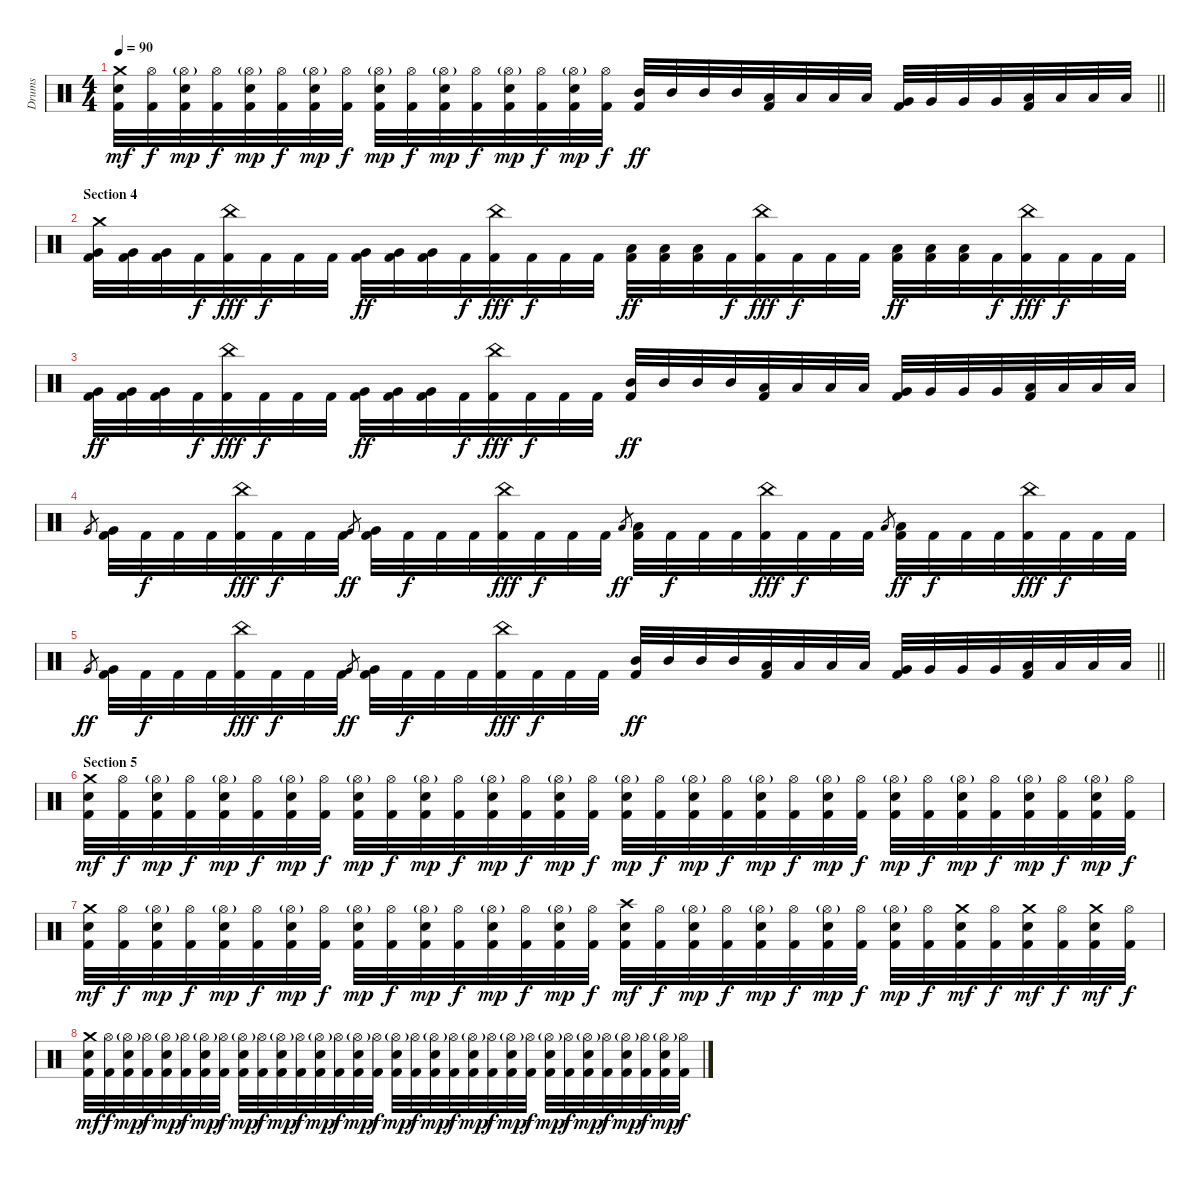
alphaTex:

\track ("Drums" "Drums") {instrument percussion}
\staff {score}
\articulation defaults
\ts (4 4)
\tempo 90
\clef neutral
\barLineRight lightlight
\ks c
("Crash medium (hit)" "Snare (hit) 2" "Kick (hit) 2").32{dy mf} ("Hi-Hat (open)" "Kick (hit) 2").32{dy f} ("Snare (hit) 2" "Hi-Hat (open)"{g} "Kick (hit) 2").32{dy mp} ("Hi-Hat (open)" "Kick (hit) 2").32{dy f} ("Snare (hit) 2" "Hi-Hat (open)"{g} "Kick (hit) 2").32{dy mp} ("Hi-Hat (open)" "Kick (hit) 2").32{dy f} ("Snare (hit) 2" "Hi-Hat (open)"{g} "Kick (hit) 2").32{dy mp} ("Hi-Hat (open)" "Kick (hit) 2").32{dy f} ("Snare (hit) 2" "Hi-Hat (open)"{g} "Kick (hit) 2").32{dy mp} ("Hi-Hat (open)" "Kick (hit) 2").32{dy f} ("Snare (hit) 2" "Hi-Hat (open)"{g} "Kick (hit) 2").32{dy mp} ("Hi-Hat (open)" "Kick (hit) 2").32{dy f} ("Snare (hit) 2" "Hi-Hat (open)"{g} "Kick (hit) 2").32{dy mp} ("Hi-Hat (open)" "Kick (hit) 2").32{dy f} ("Snare (hit) 2" "Hi-Hat (open)"{g} "Kick (hit) 2").32{dy mp} ("Hi-Hat (open)" "Kick (hit) 2").32{dy f} ("Mid Tom (hit)" "Kick (hit) 2").32{dy ff} "Mid Tom (hit)".32 "Mid Tom (hit)".32 "Mid Tom (hit)".32 ("Low Tom (hit)" "Kick (hit) 2").32 "Low Tom (hit)".32 "Low Tom (hit)".32 "Low Tom (hit)".32 ("Very Low Tom (hit)" "Kick (hit) 2").32 "Very Low Tom (hit)".32 "Very Low Tom (hit)".32 "Very Low Tom (hit)".32 ("Low Floor Tom (hit)" "Kick (hit) 2").32 "Low Floor Tom (hit)".32 "Low Floor Tom (hit)".32 "Low Floor Tom (hit)".32 |
\section ("" "Section 4")
("Crash medium (hit)" "Very Low Tom (hit)" "Kick (hit) 2").32 ("Very Low Tom (hit)" "Kick (hit) 2").32 ("Very Low Tom (hit)" "Kick (hit) 2").32 "Kick (hit) 2".32{dy f} ("China (hit)" "Kick (hit) 2").32{dy fff} "Kick (hit) 2".32{dy f} "Kick (hit) 2".32 "Kick (hit) 2".32 ("Very Low Tom (hit)" "Kick (hit) 2").32{dy ff} ("Very Low Tom (hit)" "Kick (hit) 2").32 ("Very Low Tom (hit)" "Kick (hit) 2").32 "Kick (hit) 2".32{dy f} ("China (hit)" "Kick (hit) 2").32{dy fff} "Kick (hit) 2".32{dy f} "Kick (hit) 2".32 "Kick (hit) 2".32 ("Low Tom (hit)" "Kick (hit) 2").32{dy ff} ("Low Tom (hit)" "Kick (hit) 2").32 ("Low Tom (hit)" "Kick (hit) 2").32 "Kick (hit) 2".32{dy f} ("China (hit)" "Kick (hit) 2").32{dy fff} "Kick (hit) 2".32{dy f} "Kick (hit) 2".32 "Kick (hit) 2".32 ("Low Tom (hit)" "Kick (hit) 2").32{dy ff} ("Low Tom (hit)" "Kick (hit) 2").32 ("Low Tom (hit)" "Kick (hit) 2").32 "Kick (hit) 2".32{dy f} ("China (hit)" "Kick (hit) 2").32{dy fff} "Kick (hit) 2".32{dy f} "Kick (hit) 2".32 "Kick (hit) 2".32 |
("Very Low Tom (hit)" "Kick (hit) 2").32{dy ff} ("Very Low Tom (hit)" "Kick (hit) 2").32 ("Very Low Tom (hit)" "Kick (hit) 2").32 "Kick (hit) 2".32{dy f} ("China (hit)" "Kick (hit) 2").32{dy fff} "Kick (hit) 2".32{dy f} "Kick (hit) 2".32 "Kick (hit) 2".32 ("Very Low Tom (hit)" "Kick (hit) 2").32{dy ff} ("Very Low Tom (hit)" "Kick (hit) 2").32 ("Very Low Tom (hit)" "Kick (hit) 2").32 "Kick (hit) 2".32{dy f} ("China (hit)" "Kick (hit) 2").32{dy fff} "Kick (hit) 2".32{dy f} "Kick (hit) 2".32 "Kick (hit) 2".32 ("Mid Tom (hit)" "Kick (hit) 2").32{dy ff} "Mid Tom (hit)".32 "Mid Tom (hit)".32 "Mid Tom (hit)".32 ("Low Tom (hit)" "Kick (hit) 2").32 "Low Tom (hit)".32 "Low Tom (hit)".32 "Low Tom (hit)".32 ("Very Low Tom (hit)" "Kick (hit) 2").32 "Very Low Tom (hit)".32 "Very Low Tom (hit)".32 "Very Low Tom (hit)".32 ("Low Floor Tom (hit)" "Kick (hit) 2").32 "Low Floor Tom (hit)".32 "Low Floor Tom (hit)".32 "Low Floor Tom (hit)".32 |
"Very Low Tom (hit)".8{gr} ("Very Low Tom (hit)" "Kick (hit) 2").32 "Kick (hit) 2".32{dy f} "Kick (hit) 2".32 "Kick (hit) 2".32 ("China (hit)" "Kick (hit) 2").32{dy fff} "Kick (hit) 2".32{dy f} "Kick (hit) 2".32 "Kick (hit) 2".32 "Very Low Tom (hit)".8{gr dy ff} ("Very Low Tom (hit)" "Kick (hit) 2").32 "Kick (hit) 2".32{dy f} "Kick (hit) 2".32 "Kick (hit) 2".32 ("China (hit)" "Kick (hit) 2").32{dy fff} "Kick (hit) 2".32{dy f} "Kick (hit) 2".32 "Kick (hit) 2".32 "Low Tom (hit)".8{gr dy ff} ("Low Tom (hit)" "Kick (hit) 2").32 "Kick (hit) 2".32{dy f} "Kick (hit) 2".32 "Kick (hit) 2".32 ("China (hit)" "Kick (hit) 2").32{dy fff} "Kick (hit) 2".32{dy f} "Kick (hit) 2".32 "Kick (hit) 2".32 "Low Tom (hit)".8{gr} ("Low Tom (hit)" "Kick (hit) 2").32{dy ff} "Kick (hit) 2".32{dy f} "Kick (hit) 2".32 "Kick (hit) 2".32 ("China (hit)" "Kick (hit) 2").32{dy fff} "Kick (hit) 2".32{dy f} "Kick (hit) 2".32 "Kick (hit) 2".32 |
\barLineRight lightlight "Very Low Tom (hit)".8{gr dy ff}
("Very Low Tom (hit)" "Kick (hit) 2").32 "Kick (hit) 2".32{dy f} "Kick (hit) 2".32 "Kick (hit) 2".32 ("China (hit)" "Kick (hit) 2").32{dy fff} "Kick (hit) 2".32{dy f} "Kick (hit) 2".32 "Kick (hit) 2".32 "Very Low Tom (hit)".8{gr dy ff} ("Very Low Tom (hit)" "Kick (hit) 2").32 "Kick (hit) 2".32{dy f} "Kick (hit) 2".32 "Kick (hit) 2".32 ("China (hit)" "Kick (hit) 2").32{dy fff} "Kick (hit) 2".32{dy f} "Kick (hit) 2".32 "Kick (hit) 2".32 ("Mid Tom (hit)" "Kick (hit) 2").32{dy ff} "Mid Tom (hit)".32 "Mid Tom (hit)".32 "Mid Tom (hit)".32 ("Low Tom (hit)" "Kick (hit) 2").32 "Low Tom (hit)".32 "Low Tom (hit)".32 "Low Tom (hit)".32 ("Very Low Tom (hit)" "Kick (hit) 2").32 "Very Low Tom (hit)".32 "Very Low Tom (hit)".32 "Very Low Tom (hit)".32 ("Low Floor Tom (hit)" "Kick (hit) 2").32 "Low Floor Tom (hit)".32 "Low Floor Tom (hit)".32 "Low Floor Tom (hit)".32 |
\section ("" "Section 5")
("Crash medium (hit)" "Snare (hit) 2" "Kick (hit) 2").32{dy mf} ("Hi-Hat (open)" "Kick (hit) 2").32{dy f} ("Snare (hit) 2" "Hi-Hat (open)"{g} "Kick (hit) 2").32{dy mp} ("Hi-Hat (open)" "Kick (hit) 2").32{dy f} ("Snare (hit) 2" "Hi-Hat (open)"{g} "Kick (hit) 2").32{dy mp} ("Hi-Hat (open)" "Kick (hit) 2").32{dy f} ("Snare (hit) 2" "Hi-Hat (open)"{g} "Kick (hit) 2").32{dy mp} ("Hi-Hat (open)" "Kick (hit) 2").32{dy f} ("Snare (hit) 2" "Hi-Hat (open)"{g} "Kick (hit) 2").32{dy mp} ("Hi-Hat (open)" "Kick (hit) 2").32{dy f} ("Snare (hit) 2" "Hi-Hat (open)"{g} "Kick (hit) 2").32{dy mp} ("Hi-Hat (open)" "Kick (hit) 2").32{dy f} ("Snare (hit) 2" "Hi-Hat (open)"{g} "Kick (hit) 2").32{dy mp} ("Hi-Hat (open)" "Kick (hit) 2").32{dy f} ("Snare (hit) 2" "Hi-Hat (open)"{g} "Kick (hit) 2").32{dy mp} ("Hi-Hat (open)" "Kick (hit) 2").32{dy f} ("Snare (hit) 2" "Hi-Hat (open)"{g} "Kick (hit) 2").32{dy mp} ("Hi-Hat (open)" "Kick (hit) 2").32{dy f} ("Snare (hit) 2" "Hi-Hat (open)"{g} "Kick (hit) 2").32{dy mp} ("Hi-Hat (open)" "Kick (hit) 2").32{dy f} ("Snare (hit) 2" "Hi-Hat (open)"{g} "Kick (hit) 2").32{dy mp} ("Hi-Hat (open)" "Kick (hit) 2").32{dy f} ("Snare (hit) 2" "Hi-Hat (open)"{g} "Kick (hit) 2").32{dy mp} ("Hi-Hat (open)" "Kick (hit) 2").32{dy f} ("Snare (hit) 2" "Hi-Hat (open)"{g} "Kick (hit) 2").32{dy mp} ("Hi-Hat (open)" "Kick (hit) 2").32{dy f} ("Snare (hit) 2" "Hi-Hat (open)"{g} "Kick (hit) 2").32{dy mp} ("Hi-Hat (open)" "Kick (hit) 2").32{dy f} ("Snare (hit) 2" "Hi-Hat (open)"{g} "Kick (hit) 2").32{dy mp} ("Hi-Hat (open)" "Kick (hit) 2").32{dy f} ("Snare (hit) 2" "Hi-Hat (open)"{g} "Kick (hit) 2").32{dy mp} ("Hi-Hat (open)" "Kick (hit) 2").32{dy f} |
("Crash medium (hit)" "Snare (hit) 2" "Kick (hit) 2").32{dy mf} ("Hi-Hat (open)" "Kick (hit) 2").32{dy f} ("Snare (hit) 2" "Hi-Hat (open)"{g} "Kick (hit) 2").32{dy mp} ("Hi-Hat (open)" "Kick (hit) 2").32{dy f} ("Snare (hit) 2" "Hi-Hat (open)"{g} "Kick (hit) 2").32{dy mp} ("Hi-Hat (open)" "Kick (hit) 2").32{dy f} ("Snare (hit) 2" "Hi-Hat (open)"{g} "Kick (hit) 2").32{dy mp} ("Hi-Hat (open)" "Kick (hit) 2").32{dy f} ("Snare (hit) 2" "Hi-Hat (open)"{g} "Kick (hit) 2").32{dy mp} ("Hi-Hat (open)" "Kick (hit) 2").32{dy f} ("Snare (hit) 2" "Hi-Hat (open)"{g} "Kick (hit) 2").32{dy mp} ("Hi-Hat (open)" "Kick (hit) 2").32{dy f} ("Snare (hit) 2" "Hi-Hat (open)"{g} "Kick (hit) 2").32{dy mp} ("Hi-Hat (open)" "Kick (hit) 2").32{dy f} ("Snare (hit) 2" "Hi-Hat (open)"{g} "Kick (hit) 2").32{dy mp} ("Hi-Hat (open)" "Kick (hit) 2").32{dy f} ("Crash high (hit)" "Snare (hit) 2" "Kick (hit) 2").32{dy mf} ("Hi-Hat (open)" "Kick (hit) 2").32{dy f} ("Snare (hit) 2" "Hi-Hat (open)"{g} "Kick (hit) 2").32{dy mp} ("Hi-Hat (open)" "Kick (hit) 2").32{dy f} ("Snare (hit) 2" "Hi-Hat (open)"{g} "Kick (hit) 2").32{dy mp} ("Hi-Hat (open)" "Kick (hit) 2").32{dy f} ("Snare (hit) 2" "Hi-Hat (open)"{g} "Kick (hit) 2").32{dy mp} ("Hi-Hat (open)" "Kick (hit) 2").32{dy f} ("Snare (hit) 2" "Hi-Hat (open)"{g} "Kick (hit) 2").32{dy mp} ("Hi-Hat (open)" "Kick (hit) 2").32{dy f} ("Snare (hit) 2" "Crash medium (hit)" "Kick (hit) 2").32{dy mf} ("Hi-Hat (open)" "Kick (hit) 2").32{dy f} ("Snare (hit) 2" "Crash medium (hit)" "Kick (hit) 2").32{dy mf} ("Hi-Hat (open)" "Kick (hit) 2").32{dy f} ("Snare (hit) 2" "Crash medium (hit)" "Kick (hit) 2").32{dy mf} ("Hi-Hat (open)" "Kick (hit) 2").32{dy f} |
("Crash medium (hit)" "Snare (hit) 2" "Kick (hit) 2").32{dy mf} ("Hi-Hat (open)" "Kick (hit) 2").32{dy f} ("Snare (hit) 2" "Hi-Hat (open)"{g} "Kick (hit) 2").32{dy mp} ("Hi-Hat (open)" "Kick (hit) 2").32{dy f} ("Snare (hit) 2" "Hi-Hat (open)"{g} "Kick (hit) 2").32{dy mp} ("Hi-Hat (open)" "Kick (hit) 2").32{dy f} ("Snare (hit) 2" "Hi-Hat (open)"{g} "Kick (hit) 2").32{dy mp} ("Hi-Hat (open)" "Kick (hit) 2").32{dy f} ("Snare (hit) 2" "Hi-Hat (open)"{g} "Kick (hit) 2").32{dy mp} ("Hi-Hat (open)" "Kick (hit) 2").32{dy f} ("Snare (hit) 2" "Hi-Hat (open)"{g} "Kick (hit) 2").32{dy mp} ("Hi-Hat (open)" "Kick (hit) 2").32{dy f} ("Snare (hit) 2" "Hi-Hat (open)"{g} "Kick (hit) 2").32{dy mp} ("Hi-Hat (open)" "Kick (hit) 2").32{dy f} ("Snare (hit) 2" "Hi-Hat (open)"{g} "Kick (hit) 2").32{dy mp} ("Hi-Hat (open)" "Kick (hit) 2").32{dy f} ("Snare (hit) 2" "Hi-Hat (open)"{g} "Kick (hit) 2").32{dy mp} ("Hi-Hat (open)" "Kick (hit) 2").32{dy f} ("Snare (hit) 2" "Hi-Hat (open)"{g} "Kick (hit) 2").32{dy mp} ("Hi-Hat (open)" "Kick (hit) 2").32{dy f} ("Snare (hit) 2" "Hi-Hat (open)"{g} "Kick (hit) 2").32{dy mp} ("Hi-Hat (open)" "Kick (hit) 2").32{dy f} ("Snare (hit) 2" "Hi-Hat (open)"{g} "Kick (hit) 2").32{dy mp} ("Hi-Hat (open)" "Kick (hit) 2").32{dy f} ("Snare (hit) 2" "Hi-Hat (open)"{g} "Kick (hit) 2").32{dy mp} ("Hi-Hat (open)" "Kick (hit) 2").32{dy f} ("Snare (hit) 2" "Hi-Hat (open)"{g} "Kick (hit) 2").32{dy mp} ("Hi-Hat (open)" "Kick (hit) 2").32{dy f} ("Snare (hit) 2" "Hi-Hat (open)"{g} "Kick (hit) 2").32{dy mp} ("Hi-Hat (open)" "Kick (hit) 2").32{dy f} ("Snare (hit) 2" "Hi-Hat (open)"{g} "Kick (hit) 2").32{dy mp} ("Hi-Hat (open)" "Kick (hit) 2").32{dy f}
